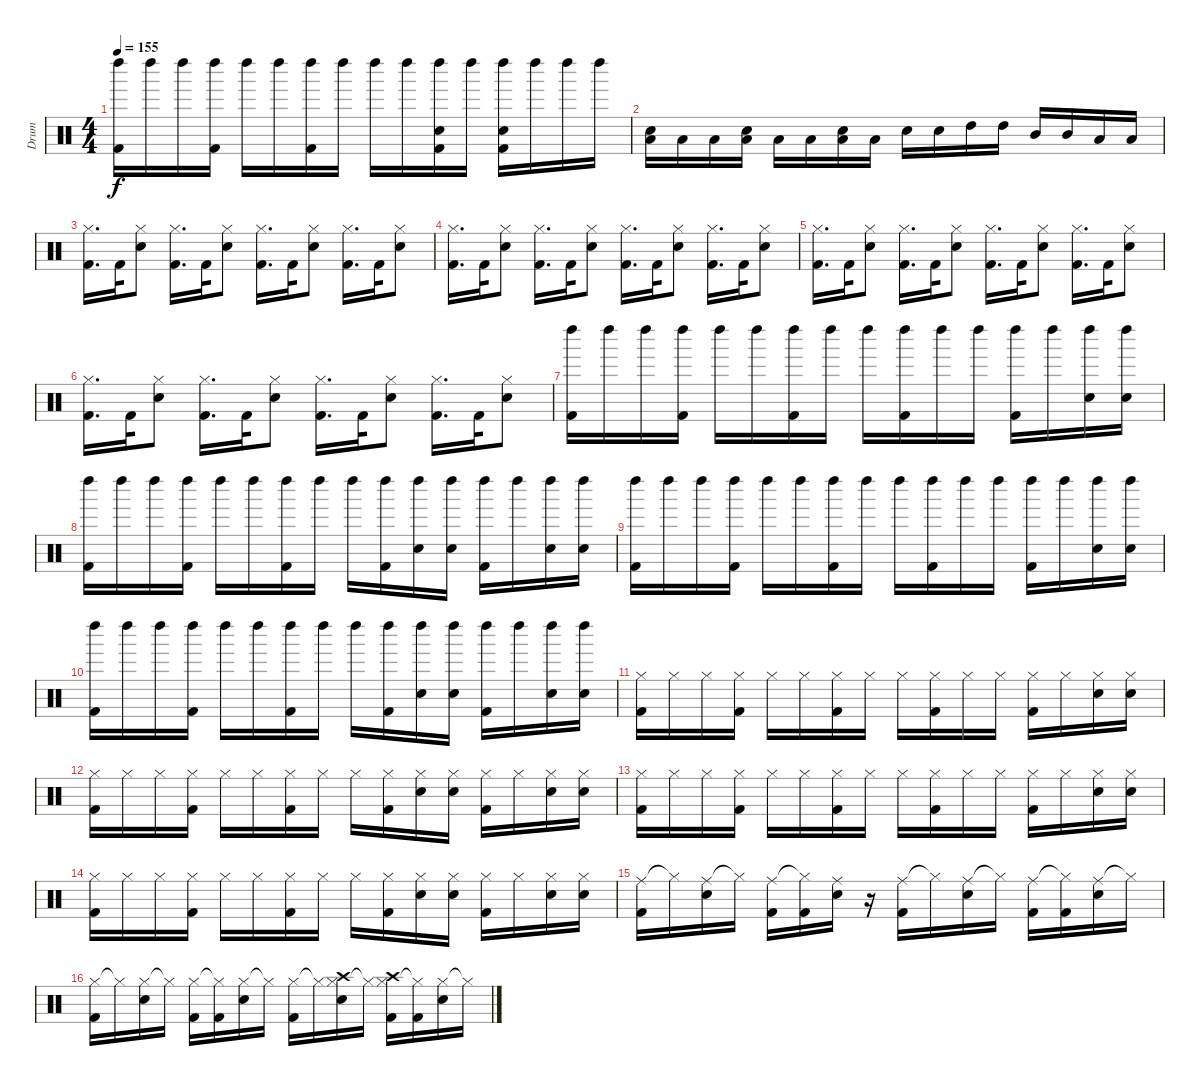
\track ("Drum" "Drum") {instrument percussion}
\staff {score}
\articulation defaults
\ts (4 4)
\tempo 155
\clef neutral
\ks c
("Left Maraca (hit)" "Kick (hit) 2").16{dy f} "Left Maraca (hit)".16 "Left Maraca (hit)".16 ("Left Maraca (hit)" "Kick (hit) 2").16 "Left Maraca (hit)".16 "Left Maraca (hit)".16 ("Left Maraca (hit)" "Kick (hit) 2").16 "Left Maraca (hit)".16 "Left Maraca (hit)".16 "Left Maraca (hit)".16 ("Left Maraca (hit)" "Snare (hit) 2" "Kick (hit) 2").16 "Left Maraca (hit)".16 ("Left Maraca (hit)" "Snare (hit) 2" "Kick (hit) 2").16 "Left Maraca (hit)".16 "Left Maraca (hit)".16 "Left Maraca (hit)".16 |
("Snare (hit) 2" "Low Floor Tom (hit)").16 "Low Floor Tom (hit)".16 "Low Floor Tom (hit)".16 ("Snare (hit) 2" "Low Floor Tom (hit)").16 "Low Floor Tom (hit)".16 "Low Floor Tom (hit)".16 ("Snare (hit) 2" "Low Floor Tom (hit)").16 "Low Floor Tom (hit)".16 "Snare (hit) 2".16 "Snare (hit) 2".16 "High Tom (hit)".16 "High Tom (hit)".16 "Mid Tom (hit)".16 "Mid Tom (hit)".16 "Low Tom (hit)".16 "Low Tom (hit)".16 |
("Hi-Hat (closed)" "Kick (hit) 2").16{d} "Kick (hit) 2".32 ("Hi-Hat (closed)" "Snare (hit) 2").8 ("Hi-Hat (closed)" "Kick (hit) 2").16{d} "Kick (hit) 2".32 ("Hi-Hat (closed)" "Snare (hit) 2").8 ("Hi-Hat (closed)" "Kick (hit) 2").16{d} "Kick (hit) 2".32 ("Hi-Hat (closed)" "Snare (hit) 2").8 ("Hi-Hat (closed)" "Kick (hit) 2").16{d} "Kick (hit) 2".32 ("Hi-Hat (closed)" "Snare (hit) 2").8 |
("Hi-Hat (closed)" "Kick (hit) 2").16{d} "Kick (hit) 2".32 ("Hi-Hat (closed)" "Snare (hit) 2").8 ("Hi-Hat (closed)" "Kick (hit) 2").16{d} "Kick (hit) 2".32 ("Hi-Hat (closed)" "Snare (hit) 2").8 ("Hi-Hat (closed)" "Kick (hit) 2").16{d} "Kick (hit) 2".32 ("Hi-Hat (closed)" "Snare (hit) 2").8 ("Hi-Hat (closed)" "Kick (hit) 2").16{d} "Kick (hit) 2".32 ("Hi-Hat (closed)" "Snare (hit) 2").8 |
("Hi-Hat (closed)" "Kick (hit) 2").16{d} "Kick (hit) 2".32 ("Hi-Hat (closed)" "Snare (hit) 2").8 ("Hi-Hat (closed)" "Kick (hit) 2").16{d} "Kick (hit) 2".32 ("Hi-Hat (closed)" "Snare (hit) 2").8 ("Hi-Hat (closed)" "Kick (hit) 2").16{d} "Kick (hit) 2".32 ("Hi-Hat (closed)" "Snare (hit) 2").8 ("Hi-Hat (closed)" "Kick (hit) 2").16{d} "Kick (hit) 2".32 ("Hi-Hat (closed)" "Snare (hit) 2").8 |
("Hi-Hat (closed)" "Kick (hit) 2").16{d} "Kick (hit) 2".32 ("Hi-Hat (closed)" "Snare (hit) 2").8 ("Hi-Hat (closed)" "Kick (hit) 2").16{d} "Kick (hit) 2".32 ("Hi-Hat (closed)" "Snare (hit) 2").8 ("Hi-Hat (closed)" "Kick (hit) 2").16{d} "Kick (hit) 2".32 ("Hi-Hat (closed)" "Snare (hit) 2").8 ("Hi-Hat (closed)" "Kick (hit) 2").16{d} "Kick (hit) 2".32 ("Hi-Hat (closed)" "Snare (hit) 2").8 |
("Left Maraca (hit)" "Kick (hit) 2").16 "Left Maraca (hit)".16 "Left Maraca (hit)".16 ("Left Maraca (hit)" "Kick (hit) 2").16 "Left Maraca (hit)".16 "Left Maraca (hit)".16 ("Left Maraca (hit)" "Kick (hit) 2").16 "Left Maraca (hit)".16 "Left Maraca (hit)".16 ("Left Maraca (hit)" "Kick (hit) 2").16 "Left Maraca (hit)".16 "Left Maraca (hit)".16 ("Left Maraca (hit)" "Kick (hit) 2").16 "Left Maraca (hit)".16 ("Left Maraca (hit)" "Snare (hit) 2").16 ("Left Maraca (hit)" "Snare (hit) 2").16 |
("Left Maraca (hit)" "Kick (hit) 2").16 "Left Maraca (hit)".16 "Left Maraca (hit)".16 ("Left Maraca (hit)" "Kick (hit) 2").16 "Left Maraca (hit)".16 "Left Maraca (hit)".16 ("Left Maraca (hit)" "Kick (hit) 2").16 "Left Maraca (hit)".16 "Left Maraca (hit)".16 ("Left Maraca (hit)" "Kick (hit) 2").16 ("Left Maraca (hit)" "Snare (hit) 2").16 ("Left Maraca (hit)" "Snare (hit) 2").16 ("Left Maraca (hit)" "Kick (hit) 2").16 "Left Maraca (hit)".16 ("Left Maraca (hit)" "Snare (hit) 2").16 ("Left Maraca (hit)" "Snare (hit) 2").16 |
("Left Maraca (hit)" "Kick (hit) 2").16 "Left Maraca (hit)".16 "Left Maraca (hit)".16 ("Left Maraca (hit)" "Kick (hit) 2").16 "Left Maraca (hit)".16 "Left Maraca (hit)".16 ("Left Maraca (hit)" "Kick (hit) 2").16 "Left Maraca (hit)".16 "Left Maraca (hit)".16 ("Left Maraca (hit)" "Kick (hit) 2").16 "Left Maraca (hit)".16 "Left Maraca (hit)".16 ("Left Maraca (hit)" "Kick (hit) 2").16 "Left Maraca (hit)".16 ("Left Maraca (hit)" "Snare (hit) 2").16 ("Left Maraca (hit)" "Snare (hit) 2").16 |
("Left Maraca (hit)" "Kick (hit) 2").16 "Left Maraca (hit)".16 "Left Maraca (hit)".16 ("Left Maraca (hit)" "Kick (hit) 2").16 "Left Maraca (hit)".16 "Left Maraca (hit)".16 ("Left Maraca (hit)" "Kick (hit) 2").16 "Left Maraca (hit)".16 "Left Maraca (hit)".16 ("Left Maraca (hit)" "Kick (hit) 2").16 ("Left Maraca (hit)" "Snare (hit) 2").16 ("Left Maraca (hit)" "Snare (hit) 2").16 ("Left Maraca (hit)" "Kick (hit) 2").16 "Left Maraca (hit)".16 ("Left Maraca (hit)" "Snare (hit) 2").16 ("Left Maraca (hit)" "Snare (hit) 2").16 |
("Hi-Hat (closed)" "Kick (hit) 2").16 "Hi-Hat (closed)".16 "Hi-Hat (closed)".16 ("Hi-Hat (closed)" "Kick (hit) 2").16 "Hi-Hat (closed)".16 "Hi-Hat (closed)".16 ("Hi-Hat (closed)" "Kick (hit) 2").16 "Hi-Hat (closed)".16 "Hi-Hat (closed)".16 ("Hi-Hat (closed)" "Kick (hit) 2").16 "Hi-Hat (closed)".16 "Hi-Hat (closed)".16 ("Hi-Hat (closed)" "Kick (hit) 2").16 "Hi-Hat (closed)".16 ("Hi-Hat (closed)" "Snare (hit) 2").16 ("Hi-Hat (closed)" "Snare (hit) 2").16 |
("Hi-Hat (closed)" "Kick (hit) 2").16 "Hi-Hat (closed)".16 "Hi-Hat (closed)".16 ("Hi-Hat (closed)" "Kick (hit) 2").16 "Hi-Hat (closed)".16 "Hi-Hat (closed)".16 ("Hi-Hat (closed)" "Kick (hit) 2").16 "Hi-Hat (closed)".16 "Hi-Hat (closed)".16 ("Hi-Hat (closed)" "Kick (hit) 2").16 ("Hi-Hat (closed)" "Snare (hit) 2").16 ("Hi-Hat (closed)" "Snare (hit) 2").16 ("Hi-Hat (closed)" "Kick (hit) 2").16 "Hi-Hat (closed)".16 ("Hi-Hat (closed)" "Snare (hit) 2").16 ("Hi-Hat (closed)" "Snare (hit) 2").16 |
("Hi-Hat (closed)" "Kick (hit) 2").16 "Hi-Hat (closed)".16 "Hi-Hat (closed)".16 ("Hi-Hat (closed)" "Kick (hit) 2").16 "Hi-Hat (closed)".16 "Hi-Hat (closed)".16 ("Hi-Hat (closed)" "Kick (hit) 2").16 "Hi-Hat (closed)".16 "Hi-Hat (closed)".16 ("Hi-Hat (closed)" "Kick (hit) 2").16 "Hi-Hat (closed)".16 "Hi-Hat (closed)".16 ("Hi-Hat (closed)" "Kick (hit) 2").16 "Hi-Hat (closed)".16 ("Hi-Hat (closed)" "Snare (hit) 2").16 ("Hi-Hat (closed)" "Snare (hit) 2").16 |
("Hi-Hat (closed)" "Kick (hit) 2").16 "Hi-Hat (closed)".16 "Hi-Hat (closed)".16 ("Hi-Hat (closed)" "Kick (hit) 2").16 "Hi-Hat (closed)".16 "Hi-Hat (closed)".16 ("Hi-Hat (closed)" "Kick (hit) 2").16 "Hi-Hat (closed)".16 "Hi-Hat (closed)".16 ("Hi-Hat (closed)" "Kick (hit) 2").16 ("Hi-Hat (closed)" "Snare (hit) 2").16 ("Hi-Hat (closed)" "Snare (hit) 2").16 ("Hi-Hat (closed)" "Kick (hit) 2").16 "Hi-Hat (closed)".16 ("Hi-Hat (closed)" "Snare (hit) 2").16 ("Hi-Hat (closed)" "Snare (hit) 2").16 |
("Ride (middle)" "Kick (hit) 2").16 "Hi-Hat (closed)"{t}.16 ("Ride (middle)" "Snare (hit) 2").16 "Hi-Hat (closed)"{t}.16 ("Ride (middle)" "Kick (hit) 2").16 ("Hi-Hat (closed)"{t} "Kick (hit) 2").16 ("Ride (middle)" "Snare (hit) 2").16 r.16 ("Ride (middle)" "Kick (hit) 2").16 "Hi-Hat (closed)"{t}.16 ("Ride (middle)" "Snare (hit) 2").16 "Hi-Hat (closed)"{t}.16 ("Ride (middle)" "Kick (hit) 2").16 ("Hi-Hat (closed)"{t} "Kick (hit) 2").16 ("Ride (middle)" "Snare (hit) 2").16 "Hi-Hat (closed)"{t}.16 |
("Hi-Hat (closed)" "Kick (hit) 2").16 "Hi-Hat (closed)"{t}.16 ("Hi-Hat (closed)" "Snare (hit) 2").16 "Hi-Hat (closed)"{t}.16 ("Hi-Hat (closed)" "Kick (hit) 2").16 ("Hi-Hat (closed)"{t} "Kick (hit) 2").16 ("Hi-Hat (closed)" "Snare (hit) 2").16 "Hi-Hat (closed)"{t}.16 ("Hi-Hat (closed)" "Kick (hit) 2").16 "Hi-Hat (closed)"{t}.16 ("Hi-Hat (closed)" "Crash high (hit)" "Snare (hit) 2").16 "Hi-Hat (closed)"{t}.16 ("Hi-Hat (closed)" "Crash high (hit)" "Kick (hit) 2").16 ("Hi-Hat (closed)"{t} "Kick (hit) 2").16 ("Hi-Hat (closed)" "Snare (hit) 2").16 "Hi-Hat (closed)"{t}.16
